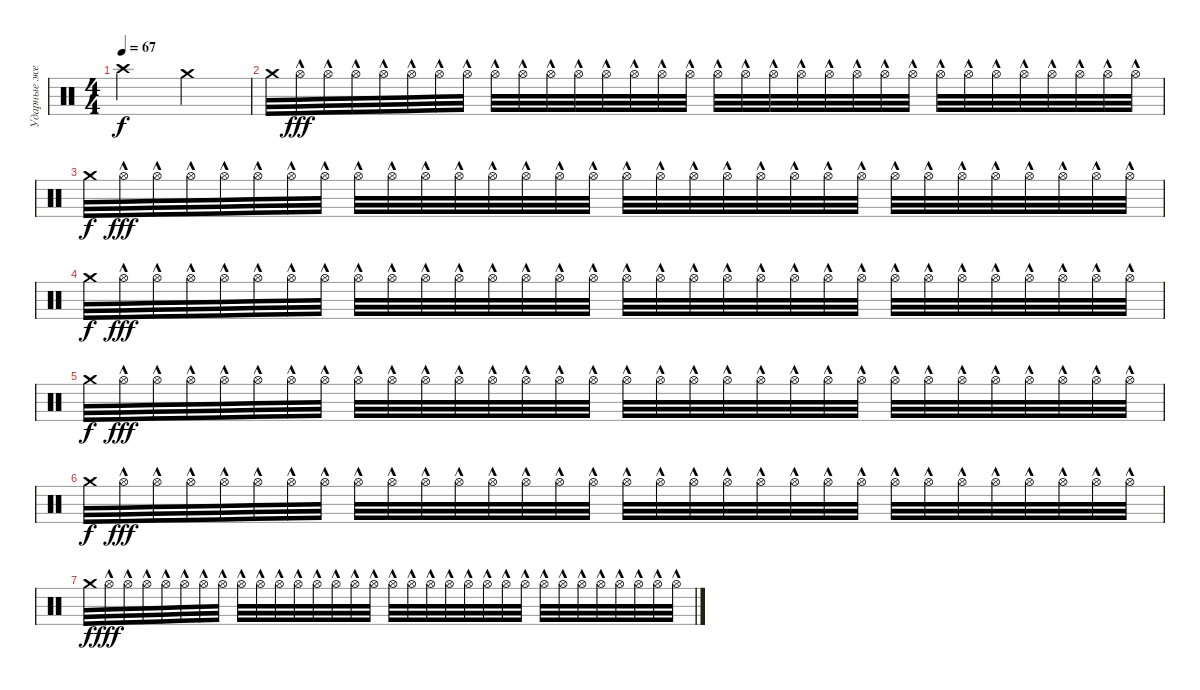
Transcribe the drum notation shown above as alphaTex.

\track ("Ударные железо" "Ударные же") {instrument percussion}
\staff {score}
\articulation defaults
\ts (4 4)
\tempo 67
\clef neutral
\ks c "Crash high (hit)".2{dy f} "Crash medium (hit)".2
|
"Crash medium (hit)".32 "Hi-Hat (open)"{hac}.32{dy fff} "Hi-Hat (open)"{hac}.32 "Hi-Hat (open)"{hac}.32 "Hi-Hat (open)"{hac}.32 "Hi-Hat (open)"{hac}.32 "Hi-Hat (open)"{hac}.32 "Hi-Hat (open)"{hac}.32 "Hi-Hat (open)"{hac}.32 "Hi-Hat (open)"{hac}.32 "Hi-Hat (open)"{hac}.32 "Hi-Hat (open)"{hac}.32 "Hi-Hat (open)"{hac}.32 "Hi-Hat (open)"{hac}.32 "Hi-Hat (open)"{hac}.32 "Hi-Hat (open)"{hac}.32 "Hi-Hat (open)"{hac}.32 "Hi-Hat (open)"{hac}.32 "Hi-Hat (open)"{hac}.32 "Hi-Hat (open)"{hac}.32 "Hi-Hat (open)"{hac}.32 "Hi-Hat (open)"{hac}.32 "Hi-Hat (open)"{hac}.32 "Hi-Hat (open)"{hac}.32 "Hi-Hat (open)"{hac}.32 "Hi-Hat (open)"{hac}.32 "Hi-Hat (open)"{hac}.32 "Hi-Hat (open)"{hac}.32 "Hi-Hat (open)"{hac}.32 "Hi-Hat (open)"{hac}.32 "Hi-Hat (open)"{hac}.32 "Hi-Hat (open)"{hac}.32 |
"Crash medium (hit)".32{dy f} "Hi-Hat (open)"{hac}.32{dy fff} "Hi-Hat (open)"{hac}.32 "Hi-Hat (open)"{hac}.32 "Hi-Hat (open)"{hac}.32 "Hi-Hat (open)"{hac}.32 "Hi-Hat (open)"{hac}.32 "Hi-Hat (open)"{hac}.32 "Hi-Hat (open)"{hac}.32 "Hi-Hat (open)"{hac}.32 "Hi-Hat (open)"{hac}.32 "Hi-Hat (open)"{hac}.32 "Hi-Hat (open)"{hac}.32 "Hi-Hat (open)"{hac}.32 "Hi-Hat (open)"{hac}.32 "Hi-Hat (open)"{hac}.32 "Hi-Hat (open)"{hac}.32 "Hi-Hat (open)"{hac}.32 "Hi-Hat (open)"{hac}.32 "Hi-Hat (open)"{hac}.32 "Hi-Hat (open)"{hac}.32 "Hi-Hat (open)"{hac}.32 "Hi-Hat (open)"{hac}.32 "Hi-Hat (open)"{hac}.32 "Hi-Hat (open)"{hac}.32 "Hi-Hat (open)"{hac}.32 "Hi-Hat (open)"{hac}.32 "Hi-Hat (open)"{hac}.32 "Hi-Hat (open)"{hac}.32 "Hi-Hat (open)"{hac}.32 "Hi-Hat (open)"{hac}.32 "Hi-Hat (open)"{hac}.32 |
"Crash medium (hit)".32{dy f} "Hi-Hat (open)"{hac}.32{dy fff} "Hi-Hat (open)"{hac}.32 "Hi-Hat (open)"{hac}.32 "Hi-Hat (open)"{hac}.32 "Hi-Hat (open)"{hac}.32 "Hi-Hat (open)"{hac}.32 "Hi-Hat (open)"{hac}.32 "Hi-Hat (open)"{hac}.32 "Hi-Hat (open)"{hac}.32 "Hi-Hat (open)"{hac}.32 "Hi-Hat (open)"{hac}.32 "Hi-Hat (open)"{hac}.32 "Hi-Hat (open)"{hac}.32 "Hi-Hat (open)"{hac}.32 "Hi-Hat (open)"{hac}.32 "Hi-Hat (open)"{hac}.32 "Hi-Hat (open)"{hac}.32 "Hi-Hat (open)"{hac}.32 "Hi-Hat (open)"{hac}.32 "Hi-Hat (open)"{hac}.32 "Hi-Hat (open)"{hac}.32 "Hi-Hat (open)"{hac}.32 "Hi-Hat (open)"{hac}.32 "Hi-Hat (open)"{hac}.32 "Hi-Hat (open)"{hac}.32 "Hi-Hat (open)"{hac}.32 "Hi-Hat (open)"{hac}.32 "Hi-Hat (open)"{hac}.32 "Hi-Hat (open)"{hac}.32 "Hi-Hat (open)"{hac}.32 "Hi-Hat (open)"{hac}.32 |
"Crash medium (hit)".32{dy f} "Hi-Hat (open)"{hac}.32{dy fff} "Hi-Hat (open)"{hac}.32 "Hi-Hat (open)"{hac}.32 "Hi-Hat (open)"{hac}.32 "Hi-Hat (open)"{hac}.32 "Hi-Hat (open)"{hac}.32 "Hi-Hat (open)"{hac}.32 "Hi-Hat (open)"{hac}.32 "Hi-Hat (open)"{hac}.32 "Hi-Hat (open)"{hac}.32 "Hi-Hat (open)"{hac}.32 "Hi-Hat (open)"{hac}.32 "Hi-Hat (open)"{hac}.32 "Hi-Hat (open)"{hac}.32 "Hi-Hat (open)"{hac}.32 "Hi-Hat (open)"{hac}.32 "Hi-Hat (open)"{hac}.32 "Hi-Hat (open)"{hac}.32 "Hi-Hat (open)"{hac}.32 "Hi-Hat (open)"{hac}.32 "Hi-Hat (open)"{hac}.32 "Hi-Hat (open)"{hac}.32 "Hi-Hat (open)"{hac}.32 "Hi-Hat (open)"{hac}.32 "Hi-Hat (open)"{hac}.32 "Hi-Hat (open)"{hac}.32 "Hi-Hat (open)"{hac}.32 "Hi-Hat (open)"{hac}.32 "Hi-Hat (open)"{hac}.32 "Hi-Hat (open)"{hac}.32 "Hi-Hat (open)"{hac}.32 |
"Crash medium (hit)".32{dy f} "Hi-Hat (open)"{hac}.32{dy fff} "Hi-Hat (open)"{hac}.32 "Hi-Hat (open)"{hac}.32 "Hi-Hat (open)"{hac}.32 "Hi-Hat (open)"{hac}.32 "Hi-Hat (open)"{hac}.32 "Hi-Hat (open)"{hac}.32 "Hi-Hat (open)"{hac}.32 "Hi-Hat (open)"{hac}.32 "Hi-Hat (open)"{hac}.32 "Hi-Hat (open)"{hac}.32 "Hi-Hat (open)"{hac}.32 "Hi-Hat (open)"{hac}.32 "Hi-Hat (open)"{hac}.32 "Hi-Hat (open)"{hac}.32 "Hi-Hat (open)"{hac}.32 "Hi-Hat (open)"{hac}.32 "Hi-Hat (open)"{hac}.32 "Hi-Hat (open)"{hac}.32 "Hi-Hat (open)"{hac}.32 "Hi-Hat (open)"{hac}.32 "Hi-Hat (open)"{hac}.32 "Hi-Hat (open)"{hac}.32 "Hi-Hat (open)"{hac}.32 "Hi-Hat (open)"{hac}.32 "Hi-Hat (open)"{hac}.32 "Hi-Hat (open)"{hac}.32 "Hi-Hat (open)"{hac}.32 "Hi-Hat (open)"{hac}.32 "Hi-Hat (open)"{hac}.32 "Hi-Hat (open)"{hac}.32 |
"Crash medium (hit)".32{dy f} "Hi-Hat (open)"{hac}.32{dy fff} "Hi-Hat (open)"{hac}.32 "Hi-Hat (open)"{hac}.32 "Hi-Hat (open)"{hac}.32 "Hi-Hat (open)"{hac}.32 "Hi-Hat (open)"{hac}.32 "Hi-Hat (open)"{hac}.32 "Hi-Hat (open)"{hac}.32 "Hi-Hat (open)"{hac}.32 "Hi-Hat (open)"{hac}.32 "Hi-Hat (open)"{hac}.32 "Hi-Hat (open)"{hac}.32 "Hi-Hat (open)"{hac}.32 "Hi-Hat (open)"{hac}.32 "Hi-Hat (open)"{hac}.32 "Hi-Hat (open)"{hac}.32 "Hi-Hat (open)"{hac}.32 "Hi-Hat (open)"{hac}.32 "Hi-Hat (open)"{hac}.32 "Hi-Hat (open)"{hac}.32 "Hi-Hat (open)"{hac}.32 "Hi-Hat (open)"{hac}.32 "Hi-Hat (open)"{hac}.32 "Hi-Hat (open)"{hac}.32 "Hi-Hat (open)"{hac}.32 "Hi-Hat (open)"{hac}.32 "Hi-Hat (open)"{hac}.32 "Hi-Hat (open)"{hac}.32 "Hi-Hat (open)"{hac}.32 "Hi-Hat (open)"{hac}.32 "Hi-Hat (open)"{hac}.32
